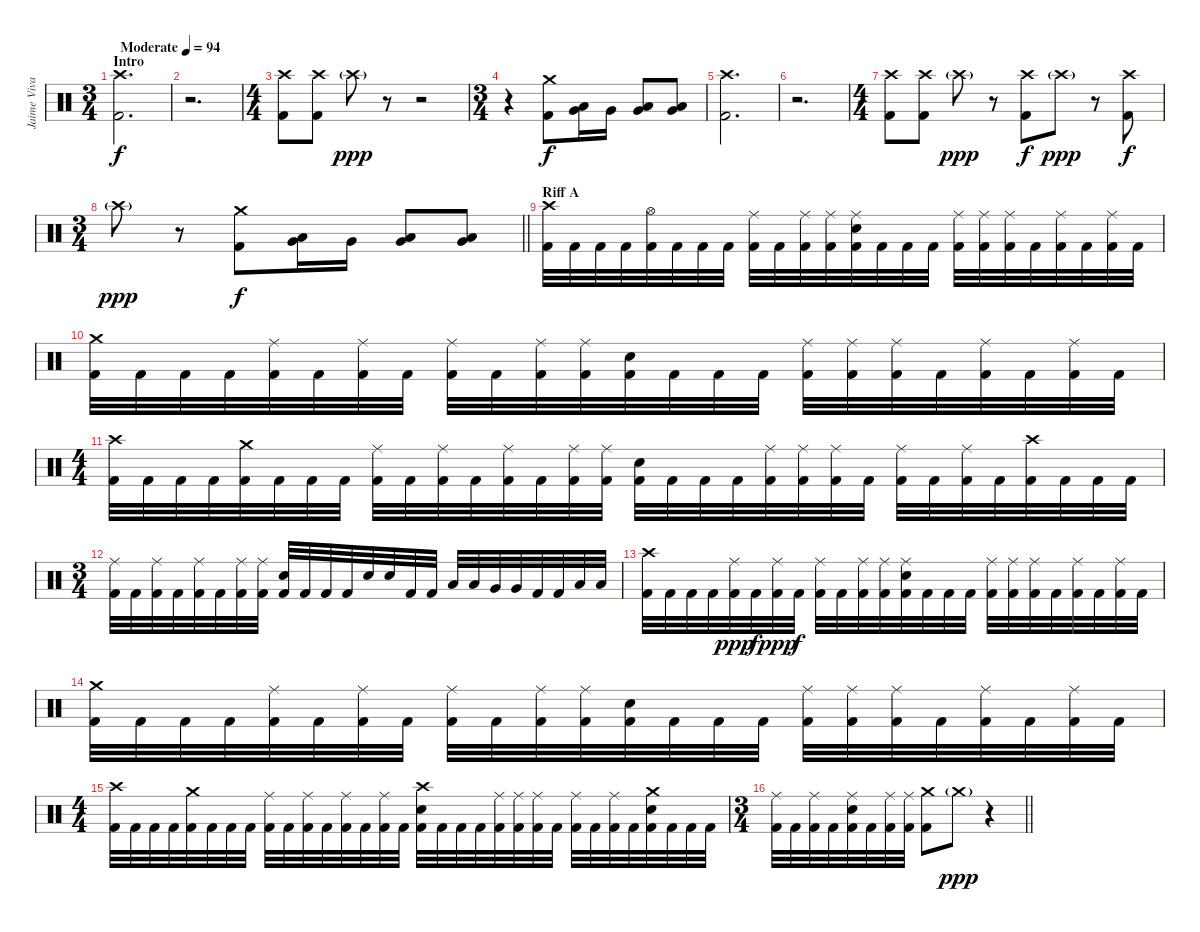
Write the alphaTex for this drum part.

\track ("Jaime Vivar" "Jaime Viva") {instrument percussion}
\staff {score}
\articulation defaults
\ts (3 4)
\section ("" "Intro")
\tempo (94 "Moderate")
\clef neutral
\ks c
("Crash high (hit)" "Kick (hit) 2").2{d dy f} |
r.2{d} |
\ts (4 4)
("Crash high (hit)" "Kick (hit) 2").8 ("Crash high (hit)" "Kick (hit) 2").8 "Crash high (hit)"{g}.8{dy ppp} r.8 r.2 |
\ts (3 4)
r.4 ("Crash medium (hit)" "Kick (hit) 2").8{dy f} ("Low Tom (hit)" "Very Low Tom (hit)").16 "Very Low Tom (hit)".16 ("Very Low Tom (hit)" "Low Floor Tom (hit)").8 ("Very Low Tom (hit)" "Low Floor Tom (hit)").8 |
("Crash high (hit)" "Kick (hit) 2").2{d} |
r.2{d} |
\ts (4 4)
("Crash high (hit)" "Kick (hit) 2").8 ("Crash high (hit)" "Kick (hit) 2").8 "Crash high (hit)"{g}.8{dy ppp} r.8 ("Crash high (hit)" "Kick (hit) 2").8{dy f} "Crash high (hit)"{g}.8{dy ppp} r.8 ("Crash high (hit)" "Kick (hit) 2").8{dy f} |
\ts (3 4)
\barLineRight lightlight "Crash high (hit)"{g}.8{dy ppp}
r.8 ("Crash medium (hit)" "Kick (hit) 2").8{dy f} ("Low Tom (hit)" "Very Low Tom (hit)").16 "Very Low Tom (hit)".16 ("Very Low Tom (hit)" "Low Floor Tom (hit)").8 ("Very Low Tom (hit)" "Low Floor Tom (hit)").8 |
\section ("" "Riff A")
("Crash high (hit)" "Kick (hit) 2").32 "Kick (hit) 2".32 "Kick (hit) 2".32 "Kick (hit) 2".32 ("Hi-Hat (open)" "Kick (hit) 2").32 "Kick (hit) 2".32 "Kick (hit) 2".32 "Kick (hit) 2".32 ("Ride (middle)" "Kick (hit) 2").32 "Kick (hit) 2".32 ("Ride (middle)" "Kick (hit) 2").32 ("Ride (middle)" "Kick (hit) 2").32 ("Ride (middle)" "Snare (hit) 2" "Kick (hit) 2").32 "Kick (hit) 2".32 "Kick (hit) 2".32 "Kick (hit) 2".32 ("Ride (middle)" "Kick (hit) 2").32 ("Ride (middle)" "Kick (hit) 2").32 ("Ride (middle)" "Kick (hit) 2").32 "Kick (hit) 2".32 ("Ride (middle)" "Kick (hit) 2").32 "Kick (hit) 2".32 ("Ride (middle)" "Kick (hit) 2").32 "Kick (hit) 2".32 |
("Crash medium (hit)" "Kick (hit) 2").32 "Kick (hit) 2".32 "Kick (hit) 2".32 "Kick (hit) 2".32 ("Ride (middle)" "Kick (hit) 2").32 "Kick (hit) 2".32 ("Ride (middle)" "Kick (hit) 2").32 "Kick (hit) 2".32 ("Ride (middle)" "Kick (hit) 2").32 "Kick (hit) 2".32 ("Ride (middle)" "Kick (hit) 2").32 ("Ride (middle)" "Kick (hit) 2").32 ("Snare (hit) 2" "Kick (hit) 2").32 "Kick (hit) 2".32 "Kick (hit) 2".32 "Kick (hit) 2".32 ("Ride (middle)" "Kick (hit) 2").32 ("Ride (middle)" "Kick (hit) 2").32 ("Ride (middle)" "Kick (hit) 2").32 "Kick (hit) 2".32 ("Ride (middle)" "Kick (hit) 2").32 "Kick (hit) 2".32 ("Ride (middle)" "Kick (hit) 2").32 "Kick (hit) 2".32 |
\ts (4 4)
("Crash high (hit)" "Kick (hit) 2").32 "Kick (hit) 2".32 "Kick (hit) 2".32 "Kick (hit) 2".32 ("Crash medium (hit)" "Kick (hit) 2").32 "Kick (hit) 2".32 "Kick (hit) 2".32 "Kick (hit) 2".32 ("Ride (middle)" "Kick (hit) 2").32 "Kick (hit) 2".32 ("Ride (middle)" "Kick (hit) 2").32 "Kick (hit) 2".32 ("Ride (middle)" "Kick (hit) 2").32 "Kick (hit) 2".32 ("Ride (middle)" "Kick (hit) 2").32 ("Ride (middle)" "Kick (hit) 2").32 ("Snare (hit) 2" "Kick (hit) 2").32 "Kick (hit) 2".32 "Kick (hit) 2".32 "Kick (hit) 2".32 ("Ride (middle)" "Kick (hit) 2").32 ("Ride (middle)" "Kick (hit) 2").32 ("Ride (middle)" "Kick (hit) 2").32 "Kick (hit) 2".32 ("Ride (middle)" "Kick (hit) 2").32 "Kick (hit) 2".32 ("Ride (middle)" "Kick (hit) 2").32 "Kick (hit) 2".32 ("Crash high (hit)" "Kick (hit) 2").32 "Kick (hit) 2".32 "Kick (hit) 2".32 "Kick (hit) 2".32 |
\ts (3 4)
("Ride (middle)" "Kick (hit) 2").32 "Kick (hit) 2".32 ("Ride (middle)" "Kick (hit) 2").32 "Kick (hit) 2".32 ("Ride (middle)" "Kick (hit) 2").32 "Kick (hit) 2".32 ("Ride (middle)" "Kick (hit) 2").32 ("Ride (middle)" "Kick (hit) 2").32 ("Snare (hit) 2" "Kick (hit) 2").32 "Kick (hit) 2".32 "Kick (hit) 2".32 "Kick (hit) 2".32 "Snare (hit) 2".32 "Snare (hit) 2".32 "Kick (hit) 2".32 "Kick (hit) 2".32 "Low Tom (hit)".32 "Low Tom (hit)".32 "Very Low Tom (hit)".32 "Very Low Tom (hit)".32 "Kick (hit) 2".32 "Kick (hit) 2".32 "Low Floor Tom (hit)".32 "Low Floor Tom (hit)".32 |
("Crash high (hit)" "Kick (hit) 2").32 "Kick (hit) 2".32 "Kick (hit) 2".32 "Kick (hit) 2".32 ("Ride (middle)" "Kick (hit) 2").32{dy ppp} "Kick (hit) 2".32{dy f} ("Ride (middle)" "Kick (hit) 2").32{dy ppp} "Kick (hit) 2".32{dy f} ("Ride (middle)" "Kick (hit) 2").32 "Kick (hit) 2".32 ("Ride (middle)" "Kick (hit) 2").32 ("Ride (middle)" "Kick (hit) 2").32 ("Ride (middle)" "Snare (hit) 2" "Kick (hit) 2").32 "Kick (hit) 2".32 "Kick (hit) 2".32 "Kick (hit) 2".32 ("Ride (middle)" "Kick (hit) 2").32 ("Ride (middle)" "Kick (hit) 2").32 ("Ride (middle)" "Kick (hit) 2").32 "Kick (hit) 2".32 ("Ride (middle)" "Kick (hit) 2").32 "Kick (hit) 2".32 ("Ride (middle)" "Kick (hit) 2").32 "Kick (hit) 2".32 |
("Crash medium (hit)" "Kick (hit) 2").32 "Kick (hit) 2".32 "Kick (hit) 2".32 "Kick (hit) 2".32 ("Ride (middle)" "Kick (hit) 2").32 "Kick (hit) 2".32 ("Ride (middle)" "Kick (hit) 2").32 "Kick (hit) 2".32 ("Ride (middle)" "Kick (hit) 2").32 "Kick (hit) 2".32 ("Ride (middle)" "Kick (hit) 2").32 ("Ride (middle)" "Kick (hit) 2").32 ("Snare (hit) 2" "Kick (hit) 2").32 "Kick (hit) 2".32 "Kick (hit) 2".32 "Kick (hit) 2".32 ("Ride (middle)" "Kick (hit) 2").32 ("Ride (middle)" "Kick (hit) 2").32 ("Ride (middle)" "Kick (hit) 2").32 "Kick (hit) 2".32 ("Ride (middle)" "Kick (hit) 2").32 "Kick (hit) 2".32 ("Ride (middle)" "Kick (hit) 2").32 "Kick (hit) 2".32 |
\ts (4 4)
("Crash high (hit)" "Kick (hit) 2").32 "Kick (hit) 2".32 "Kick (hit) 2".32 "Kick (hit) 2".32 ("Crash medium (hit)" "Kick (hit) 2").32 "Kick (hit) 2".32 "Kick (hit) 2".32 "Kick (hit) 2".32 ("Ride (middle)" "Kick (hit) 2").32 "Kick (hit) 2".32 ("Ride (middle)" "Kick (hit) 2").32 "Kick (hit) 2".32 ("Ride (middle)" "Kick (hit) 2").32 "Kick (hit) 2".32 ("Ride (middle)" "Kick (hit) 2").32 "Kick (hit) 2".32 ("Crash high (hit)" "Snare (hit) 2" "Kick (hit) 2").32 "Kick (hit) 2".32 "Kick (hit) 2".32 "Kick (hit) 2".32 ("Ride (middle)" "Kick (hit) 2").32 ("Ride (middle)" "Kick (hit) 2").32 ("Ride (middle)" "Kick (hit) 2").32 "Kick (hit) 2".32 ("Ride (middle)" "Kick (hit) 2").32 "Kick (hit) 2".32 ("Ride (middle)" "Kick (hit) 2").32 "Kick (hit) 2".32 ("Crash medium (hit)" "Snare (hit) 2" "Kick (hit) 2").32 "Kick (hit) 2".32 "Kick (hit) 2".32 "Kick (hit) 2".32 |
\ts (3 4)
\barLineRight lightlight
("Ride (middle)" "Kick (hit) 2").32 "Kick (hit) 2".32 ("Ride (middle)" "Kick (hit) 2").32 "Kick (hit) 2".32 ("Ride (middle)" "Snare (hit) 2" "Kick (hit) 2").32 "Kick (hit) 2".32 ("Ride (middle)" "Kick (hit) 2").32 ("Ride (middle)" "Kick (hit) 2").32 ("Crash medium (hit)" "Kick (hit) 2").8 "Crash medium (hit)"{g}.8{dy ppp} r.4
